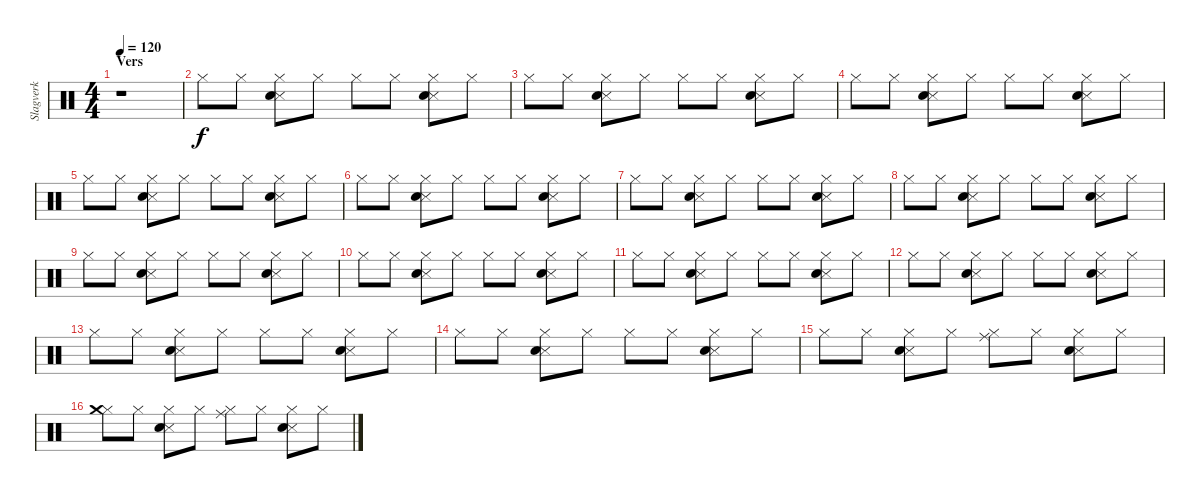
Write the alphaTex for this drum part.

\track ("Slagverk" "Slagverk") {instrument percussion}
\staff {score}
\articulation defaults
\ts (4 4)
\section ("" "Vers")
\tempo 120
\clef neutral
\ks c
r.1{dy f} |
"Hi-Hat (closed)".8 "Hi-Hat (closed)".8 ("Hi-Hat (closed)" "Snare (side stick) 3" "Snare (hit) 2").8 "Hi-Hat (closed)".8 "Hi-Hat (closed)".8 "Hi-Hat (closed)".8 ("Hi-Hat (closed)" "Snare (side stick) 3" "Snare (hit) 2").8 "Hi-Hat (closed)".8 |
"Hi-Hat (closed)".8 "Hi-Hat (closed)".8 ("Hi-Hat (closed)" "Snare (side stick) 3" "Snare (hit) 2").8 "Hi-Hat (closed)".8 "Hi-Hat (closed)".8 "Hi-Hat (closed)".8 ("Hi-Hat (closed)" "Snare (side stick) 3" "Snare (hit) 2").8 "Hi-Hat (closed)".8 |
"Hi-Hat (closed)".8 "Hi-Hat (closed)".8 ("Hi-Hat (closed)" "Snare (side stick) 3" "Snare (hit) 2").8 "Hi-Hat (closed)".8 "Hi-Hat (closed)".8 "Hi-Hat (closed)".8 ("Hi-Hat (closed)" "Snare (side stick) 3" "Snare (hit) 2").8 "Hi-Hat (closed)".8 |
"Hi-Hat (closed)".8 "Hi-Hat (closed)".8 ("Hi-Hat (closed)" "Snare (side stick) 3" "Snare (hit) 2").8 "Hi-Hat (closed)".8 "Hi-Hat (closed)".8 "Hi-Hat (closed)".8 ("Hi-Hat (closed)" "Snare (side stick) 3" "Snare (hit) 2").8 "Hi-Hat (closed)".8 |
"Hi-Hat (closed)".8 "Hi-Hat (closed)".8 ("Hi-Hat (closed)" "Snare (side stick) 3" "Snare (hit) 2").8 "Hi-Hat (closed)".8 "Hi-Hat (closed)".8 "Hi-Hat (closed)".8 ("Hi-Hat (closed)" "Snare (side stick) 3" "Snare (hit) 2").8 "Hi-Hat (closed)".8 |
"Hi-Hat (closed)".8 "Hi-Hat (closed)".8 ("Hi-Hat (closed)" "Snare (side stick) 3" "Snare (hit) 2").8 "Hi-Hat (closed)".8 "Hi-Hat (closed)".8 "Hi-Hat (closed)".8 ("Hi-Hat (closed)" "Snare (side stick) 3" "Snare (hit) 2").8 "Hi-Hat (closed)".8 |
"Hi-Hat (closed)".8 "Hi-Hat (closed)".8 ("Hi-Hat (closed)" "Snare (side stick) 3" "Snare (hit) 2").8 "Hi-Hat (closed)".8 "Hi-Hat (closed)".8 "Hi-Hat (closed)".8 ("Hi-Hat (closed)" "Snare (side stick) 3" "Snare (hit) 2").8 "Hi-Hat (closed)".8 |
"Hi-Hat (closed)".8 "Hi-Hat (closed)".8 ("Hi-Hat (closed)" "Snare (side stick) 3" "Snare (hit) 2").8 "Hi-Hat (closed)".8 "Hi-Hat (closed)".8 "Hi-Hat (closed)".8 ("Hi-Hat (closed)" "Snare (side stick) 3" "Snare (hit) 2").8 "Hi-Hat (closed)".8 |
"Hi-Hat (closed)".8 "Hi-Hat (closed)".8 ("Hi-Hat (closed)" "Snare (side stick) 3" "Snare (hit) 2").8 "Hi-Hat (closed)".8 "Hi-Hat (closed)".8 "Hi-Hat (closed)".8 ("Hi-Hat (closed)" "Snare (side stick) 3" "Snare (hit) 2").8 "Hi-Hat (closed)".8 |
"Hi-Hat (closed)".8 "Hi-Hat (closed)".8 ("Hi-Hat (closed)" "Snare (side stick) 3" "Snare (hit) 2").8 "Hi-Hat (closed)".8 "Hi-Hat (closed)".8 "Hi-Hat (closed)".8 ("Hi-Hat (closed)" "Snare (side stick) 3" "Snare (hit) 2").8 "Hi-Hat (closed)".8 |
"Hi-Hat (closed)".8 "Hi-Hat (closed)".8 ("Hi-Hat (closed)" "Snare (side stick) 3" "Snare (hit) 2").8 "Hi-Hat (closed)".8 "Hi-Hat (closed)".8 "Hi-Hat (closed)".8 ("Hi-Hat (closed)" "Snare (side stick) 3" "Snare (hit) 2").8 "Hi-Hat (closed)".8 |
"Hi-Hat (closed)".8 "Hi-Hat (closed)".8 ("Hi-Hat (closed)" "Snare (side stick) 3" "Snare (hit) 2").8 "Hi-Hat (closed)".8 "Hi-Hat (closed)".8 "Hi-Hat (closed)".8 ("Hi-Hat (closed)" "Snare (side stick) 3" "Snare (hit) 2").8 "Hi-Hat (closed)".8 |
"Hi-Hat (closed)".8 "Hi-Hat (closed)".8 ("Hi-Hat (closed)" "Snare (side stick) 3" "Snare (hit) 2").8 "Hi-Hat (closed)".8 "Hi-Hat (closed)".8 "Hi-Hat (closed)".8 ("Hi-Hat (closed)" "Snare (side stick) 3" "Snare (hit) 2").8 "Hi-Hat (closed)".8 |
"Hi-Hat (closed)".8 "Hi-Hat (closed)".8 ("Hi-Hat (closed)" "Snare (side stick) 3" "Snare (hit) 2").8 "Hi-Hat (closed)".8 ("Hi-Hat (closed)" "Ride (middle)").8 "Hi-Hat (closed)".8 ("Hi-Hat (closed)" "Snare (side stick) 3" "Snare (hit) 2").8 "Hi-Hat (closed)".8 |
("Hi-Hat (closed)" "Crash medium (hit)").8 "Hi-Hat (closed)".8 ("Hi-Hat (closed)" "Snare (side stick) 3" "Snare (hit) 2").8 "Hi-Hat (closed)".8 ("Hi-Hat (closed)" "Ride (middle)").8 "Hi-Hat (closed)".8 ("Hi-Hat (closed)" "Snare (side stick) 3" "Snare (hit) 2").8 "Hi-Hat (closed)".8
